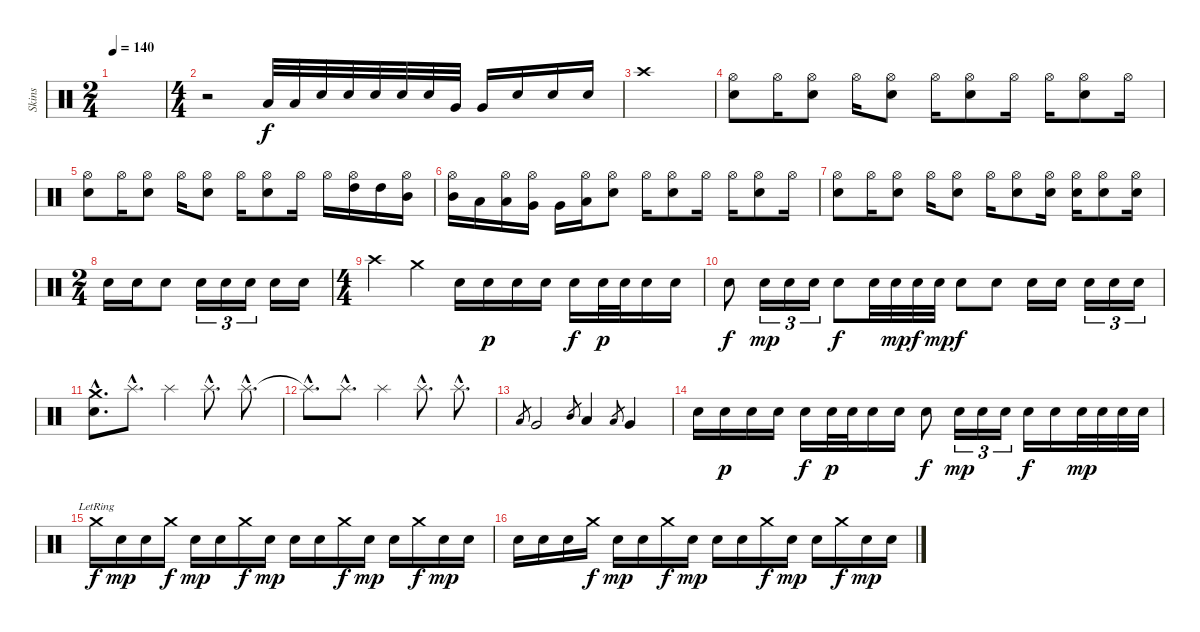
\track ("Skins" "Skins") {instrument percussion}
\staff {score}
\articulation defaults
\ts (2 4)
\tempo 140
\tempo 120
\tempo 140
\clef neutral
\ks c
|
\ts (4 4)
r.2 "Low Floor Tom (hit)".32 "Low Floor Tom (hit)".32 "Snare (hit) 2".32 "Snare (hit) 2".32 "Snare (hit) 2".32 "Snare (hit) 2".32 "Snare (hit) 2".32 "Very Low Tom (hit)".32 "Very Low Tom (hit)".16 "Electric Snare (hit)".16 "Electric Snare (hit)".16 "Electric Snare (hit)".16 |
"Crash high (hit)".1 |
("Hi-Hat (open)" "Electric Snare (hit)").8 "Hi-Hat (open)".16 ("Hi-Hat (open)" "Electric Snare (hit)").8 "Hi-Hat (open)".16 ("Hi-Hat (open)" "Electric Snare (hit)").8 "Hi-Hat (open)".16 ("Hi-Hat (open)" "Electric Snare (hit)").8 "Hi-Hat (open)".16 "Hi-Hat (open)".16 ("Hi-Hat (open)" "Electric Snare (hit)").8 "Hi-Hat (open)".16 |
("Hi-Hat (open)" "Electric Snare (hit)").8 "Hi-Hat (open)".16 ("Hi-Hat (open)" "Electric Snare (hit)").8 "Hi-Hat (open)".16 ("Hi-Hat (open)" "Electric Snare (hit)").8 "Hi-Hat (open)".16 ("Hi-Hat (open)" "Electric Snare (hit)").8 "Hi-Hat (open)".16 "Hi-Hat (open)".16 ("Hi-Hat (open)" "High Tom (hit)").16 "High Tom (hit)".16 ("Hi-Hat (open)" "Mid Tom (hit)").16 |
("Hi-Hat (open)" "Mid Tom (hit)").16 "Low Tom (hit)".16 ("Hi-Hat (open)" "Low Tom (hit)").16 ("Hi-Hat (open)" "Very Low Tom (hit)").16 "Very Low Tom (hit)".16 ("Hi-Hat (open)" "Low Floor Tom (hit)").16 ("Hi-Hat (open)" "Electric Snare (hit)").8 "Hi-Hat (open)".16 ("Hi-Hat (open)" "Electric Snare (hit)").8 "Hi-Hat (open)".16 "Hi-Hat (open)".16 ("Hi-Hat (open)" "Electric Snare (hit)").8 "Hi-Hat (open)".16 |
("Hi-Hat (open)" "Electric Snare (hit)").8 "Hi-Hat (open)".16 ("Hi-Hat (open)" "Electric Snare (hit)").8 "Hi-Hat (open)".16 ("Hi-Hat (open)" "Electric Snare (hit)").8 "Hi-Hat (open)".16 ("Hi-Hat (open)" "Electric Snare (hit)").8 ("Hi-Hat (open)" "Electric Snare (hit)").16 ("Hi-Hat (open)" "Electric Snare (hit)").16 ("Hi-Hat (open)" "Electric Snare (hit)").8 ("Hi-Hat (open)" "Electric Snare (hit)").16 |
\ts (2 4)
"Electric Snare (hit)".16 "Electric Snare (hit)".16 "Electric Snare (hit)".8 "Snare (hit) 2".16{tu (3 2)} "Snare (hit) 2".16{tu (3 2)} "Snare (hit) 2".16{tu (3 2)} "Snare (hit) 2".16 "Snare (hit) 2".16 |
\ts (4 4)
"Crash high (hit)".4 "Crash medium (hit)".4 "Electric Snare (hit)".16 "Snare (hit) 2".16{dy p} "Snare (hit) 2".16 "Snare (hit) 2".16 "Electric Snare (hit)".16{dy f} "Snare (hit) 2".32{dy p} "Snare (hit) 2".32 "Snare (hit) 2".16 "Snare (hit) 2".16 |
"Electric Snare (hit)".8{dy f} "Snare (hit) 2".16{tu (3 2) dy mp} "Snare (hit) 2".16{tu (3 2)} "Snare (hit) 2".16{tu (3 2)} "Electric Snare (hit)".8{dy f} "Electric Snare (hit)".32 "Snare (hit) 2".32{dy mp} "Electric Snare (hit)".32{dy f} "Snare (hit) 2".32{dy mp} "Electric Snare (hit)".8{dy f} "Electric Snare (hit)".8 "Snare (hit) 2".16 "Snare (hit) 2".16 "Snare (hit) 2".16{tu (3 2)} "Snare (hit) 2".16{tu (3 2)} "Snare (hit) 2".16{tu (3 2)} |
("Crash medium (hit)"{hac} "Snare (hit) 2"{hac}).8{d} "Splash (hit)"{hac}.8{d} "Splash (hit)".4 "Splash (hit)"{hac}.8{d} "Splash (hit)"{hac}.8{d} |
"Splash (hit)"{hac t}.8{d} "Splash (hit)"{hac}.8{d} "Splash (hit)".4 "Splash (hit)"{hac}.8{d} "Splash (hit)"{hac}.8{d} |
"Low Tom (hit)".8{gr} "Very Low Tom (hit)".2 "Mid Tom (hit)".8{gr} "Low Tom (hit)".4 "Low Tom (hit)".8{gr} "Very Low Tom (hit)".4 |
"Electric Snare (hit)".16 "Snare (hit) 2".16{dy p} "Snare (hit) 2".16 "Snare (hit) 2".16 "Electric Snare (hit)".16{dy f} "Snare (hit) 2".32{dy p} "Snare (hit) 2".32 "Snare (hit) 2".16 "Snare (hit) 2".16 "Electric Snare (hit)".8{dy f} "Snare (hit) 2".16{tu (3 2) dy mp} "Snare (hit) 2".16{tu (3 2)} "Snare (hit) 2".16{tu (3 2)} "Electric Snare (hit)".16{dy f} "Electric Snare (hit)".16 "Snare (hit) 2".32{dy mp} "Snare (hit) 2".32 "Snare (hit) 2".32 "Snare (hit) 2".32 |
"Crash medium (hit)"{lr}.16{dy f} "Snare (hit) 2".16{dy mp} "Snare (hit) 2".16 "Crash medium (hit)".16{dy f} "Snare (hit) 2".16{dy mp} "Snare (hit) 2".16 "Crash medium (hit)".16{dy f} "Snare (hit) 2".16{dy mp} "Snare (hit) 2".16 "Snare (hit) 2".16 "Crash medium (hit)".16{dy f} "Snare (hit) 2".16{dy mp} "Snare (hit) 2".16 "Crash medium (hit)".16{dy f} "Snare (hit) 2".16{dy mp} "Snare (hit) 2".16 |
"Snare (hit) 2".16 "Snare (hit) 2".16 "Snare (hit) 2".16 "Crash medium (hit)".16{dy f} "Snare (hit) 2".16{dy mp} "Snare (hit) 2".16 "Crash medium (hit)".16{dy f} "Snare (hit) 2".16{dy mp} "Snare (hit) 2".16 "Snare (hit) 2".16 "Crash medium (hit)".16{dy f} "Snare (hit) 2".16{dy mp} "Snare (hit) 2".16 "Crash medium (hit)".16{dy f} "Snare (hit) 2".16{dy mp} "Snare (hit) 2".16
